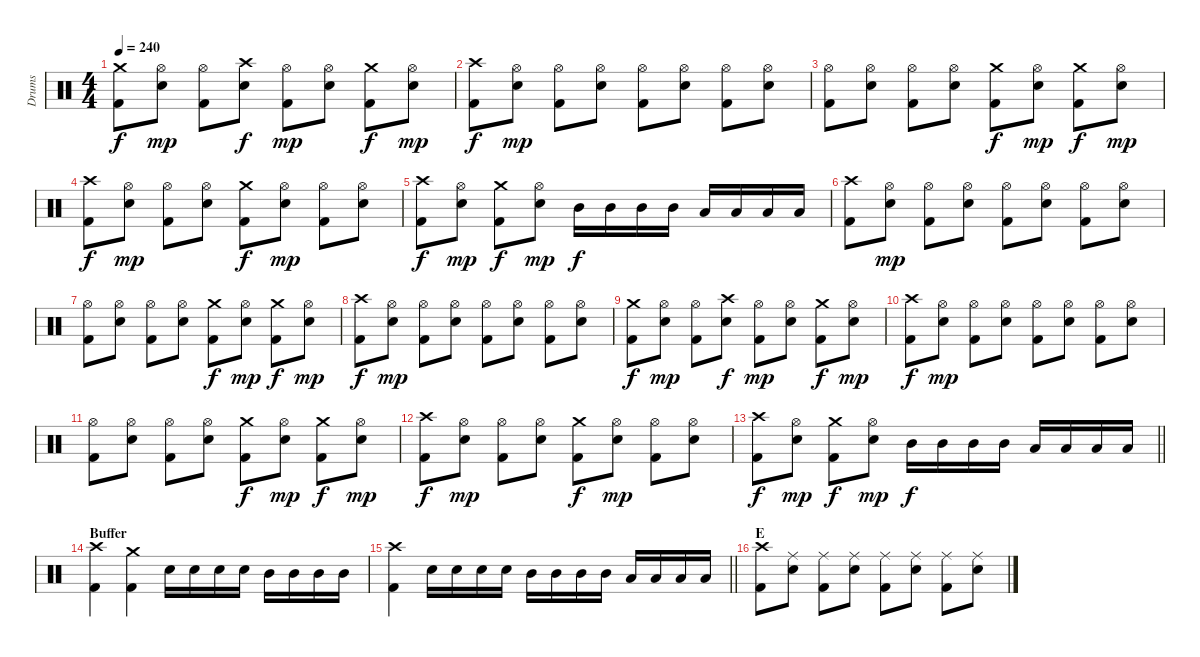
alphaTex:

\track ("Drums" "Drums") {instrument percussion}
\staff {score}
\articulation defaults
\ts (4 4)
\tempo 240
\clef neutral
\ks c
("Crash medium (hit)" "Kick (hit) 2").8{dy f} ("Hi-Hat (open)" "Snare (hit) 2").8{dy mp} ("Hi-Hat (open)" "Kick (hit) 2").8 ("Crash high (hit)" "Snare (hit) 2").8{dy f} ("Hi-Hat (open)" "Kick (hit) 2").8{dy mp} ("Hi-Hat (open)" "Snare (hit) 2").8 ("Crash medium (hit)" "Kick (hit) 2").8{dy f} ("Hi-Hat (open)" "Snare (hit) 2").8{dy mp} |
("Crash high (hit)" "Kick (hit) 2").8{dy f} ("Hi-Hat (open)" "Snare (hit) 2").8{dy mp} ("Hi-Hat (open)" "Kick (hit) 2").8 ("Hi-Hat (open)" "Snare (hit) 2").8 ("Hi-Hat (open)" "Kick (hit) 2").8 ("Hi-Hat (open)" "Snare (hit) 2").8 ("Hi-Hat (open)" "Kick (hit) 2").8 ("Hi-Hat (open)" "Snare (hit) 2").8 |
("Hi-Hat (open)" "Kick (hit) 2").8 ("Hi-Hat (open)" "Snare (hit) 2").8 ("Hi-Hat (open)" "Kick (hit) 2").8 ("Hi-Hat (open)" "Snare (hit) 2").8 ("Crash medium (hit)" "Kick (hit) 2").8{dy f} ("Hi-Hat (open)" "Snare (hit) 2").8{dy mp} ("Crash medium (hit)" "Kick (hit) 2").8{dy f} ("Hi-Hat (open)" "Snare (hit) 2").8{dy mp} |
("Crash high (hit)" "Kick (hit) 2").8{dy f} ("Hi-Hat (open)" "Snare (hit) 2").8{dy mp} ("Hi-Hat (open)" "Kick (hit) 2").8 ("Hi-Hat (open)" "Snare (hit) 2").8 ("Crash medium (hit)" "Kick (hit) 2").8{dy f} ("Hi-Hat (open)" "Snare (hit) 2").8{dy mp} ("Hi-Hat (open)" "Kick (hit) 2").8 ("Hi-Hat (open)" "Snare (hit) 2").8 |
("Crash high (hit)" "Kick (hit) 2").8{dy f} ("Hi-Hat (open)" "Snare (hit) 2").8{dy mp} ("Crash medium (hit)" "Kick (hit) 2").8{dy f} ("Hi-Hat (open)" "Snare (hit) 2").8{dy mp} "Mid Tom (hit)".16{dy f} "Mid Tom (hit)".16 "Mid Tom (hit)".16 "Mid Tom (hit)".16 "Low Tom (hit)".16 "Low Tom (hit)".16 "Low Tom (hit)".16 "Low Tom (hit)".16 |
("Crash high (hit)" "Kick (hit) 2").8 ("Hi-Hat (open)" "Snare (hit) 2").8{dy mp} ("Hi-Hat (open)" "Kick (hit) 2").8 ("Hi-Hat (open)" "Snare (hit) 2").8 ("Hi-Hat (open)" "Kick (hit) 2").8 ("Hi-Hat (open)" "Snare (hit) 2").8 ("Hi-Hat (open)" "Kick (hit) 2").8 ("Hi-Hat (open)" "Snare (hit) 2").8 |
("Hi-Hat (open)" "Kick (hit) 2").8 ("Hi-Hat (open)" "Snare (hit) 2").8 ("Hi-Hat (open)" "Kick (hit) 2").8 ("Hi-Hat (open)" "Snare (hit) 2").8 ("Crash medium (hit)" "Kick (hit) 2").8{dy f} ("Hi-Hat (open)" "Snare (hit) 2").8{dy mp} ("Crash medium (hit)" "Kick (hit) 2").8{dy f} ("Hi-Hat (open)" "Snare (hit) 2").8{dy mp} |
("Crash high (hit)" "Kick (hit) 2").8{dy f} ("Hi-Hat (open)" "Snare (hit) 2").8{dy mp} ("Hi-Hat (open)" "Kick (hit) 2").8 ("Hi-Hat (open)" "Snare (hit) 2").8 ("Hi-Hat (open)" "Kick (hit) 2").8 ("Hi-Hat (open)" "Snare (hit) 2").8 ("Hi-Hat (open)" "Kick (hit) 2").8 ("Hi-Hat (open)" "Snare (hit) 2").8 |
("Crash medium (hit)" "Kick (hit) 2").8{dy f} ("Hi-Hat (open)" "Snare (hit) 2").8{dy mp} ("Hi-Hat (open)" "Kick (hit) 2").8 ("Crash high (hit)" "Snare (hit) 2").8{dy f} ("Hi-Hat (open)" "Kick (hit) 2").8{dy mp} ("Hi-Hat (open)" "Snare (hit) 2").8 ("Crash medium (hit)" "Kick (hit) 2").8{dy f} ("Hi-Hat (open)" "Snare (hit) 2").8{dy mp} |
("Crash high (hit)" "Kick (hit) 2").8{dy f} ("Hi-Hat (open)" "Snare (hit) 2").8{dy mp} ("Hi-Hat (open)" "Kick (hit) 2").8 ("Hi-Hat (open)" "Snare (hit) 2").8 ("Hi-Hat (open)" "Kick (hit) 2").8 ("Hi-Hat (open)" "Snare (hit) 2").8 ("Hi-Hat (open)" "Kick (hit) 2").8 ("Hi-Hat (open)" "Snare (hit) 2").8 |
("Hi-Hat (open)" "Kick (hit) 2").8 ("Hi-Hat (open)" "Snare (hit) 2").8 ("Hi-Hat (open)" "Kick (hit) 2").8 ("Hi-Hat (open)" "Snare (hit) 2").8 ("Crash medium (hit)" "Kick (hit) 2").8{dy f} ("Hi-Hat (open)" "Snare (hit) 2").8{dy mp} ("Crash medium (hit)" "Kick (hit) 2").8{dy f} ("Hi-Hat (open)" "Snare (hit) 2").8{dy mp} |
("Crash high (hit)" "Kick (hit) 2").8{dy f} ("Hi-Hat (open)" "Snare (hit) 2").8{dy mp} ("Hi-Hat (open)" "Kick (hit) 2").8 ("Hi-Hat (open)" "Snare (hit) 2").8 ("Crash medium (hit)" "Kick (hit) 2").8{dy f} ("Hi-Hat (open)" "Snare (hit) 2").8{dy mp} ("Hi-Hat (open)" "Kick (hit) 2").8 ("Hi-Hat (open)" "Snare (hit) 2").8 |
\barLineRight lightlight
("Crash high (hit)" "Kick (hit) 2").8{dy f} ("Hi-Hat (open)" "Snare (hit) 2").8{dy mp} ("Crash medium (hit)" "Kick (hit) 2").8{dy f} ("Hi-Hat (open)" "Snare (hit) 2").8{dy mp} "Mid Tom (hit)".16{dy f} "Mid Tom (hit)".16 "Mid Tom (hit)".16 "Mid Tom (hit)".16 "Low Tom (hit)".16 "Low Tom (hit)".16 "Low Tom (hit)".16 "Low Tom (hit)".16 |
\section ("" "Buffer")
("Crash high (hit)" "Kick (hit) 2").4 ("Crash medium (hit)" "Kick (hit) 2").4 "Snare (hit) 2".16 "Snare (hit) 2".16 "Snare (hit) 2".16 "Snare (hit) 2".16 "Mid Tom (hit)".16 "Mid Tom (hit)".16 "Mid Tom (hit)".16 "Mid Tom (hit)".16 |
\barLineRight lightlight
("Crash high (hit)" "Kick (hit) 2").4 "Snare (hit) 2".16 "Snare (hit) 2".16 "Snare (hit) 2".16 "Snare (hit) 2".16 "Mid Tom (hit)".16 "Mid Tom (hit)".16 "Mid Tom (hit)".16 "Mid Tom (hit)".16 "Low Tom (hit)".16 "Low Tom (hit)".16 "Low Tom (hit)".16 "Low Tom (hit)".16 |
\section ("" "E")
("Crash high (hit)" "Kick (hit) 2").8 ("Ride (middle)" "Snare (hit) 2").8 ("Ride (middle)" "Kick (hit) 2").8 ("Ride (middle)" "Snare (hit) 2").8 ("Ride (middle)" "Kick (hit) 2").8 ("Ride (middle)" "Snare (hit) 2").8 ("Ride (middle)" "Kick (hit) 2").8 ("Ride (middle)" "Snare (hit) 2").8
